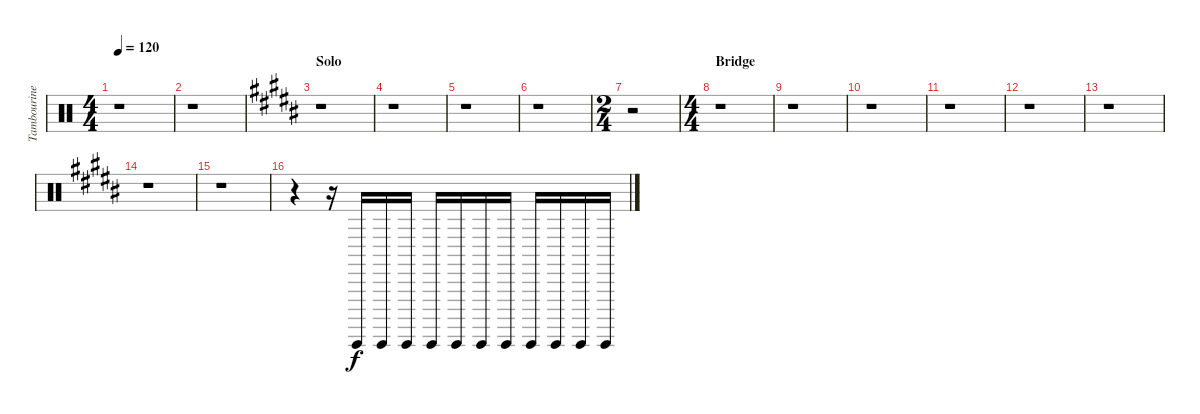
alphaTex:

\track ("Tambourine" "Tambourine") {instrument percussion}
\staff {score}
\articulation defaults
\ts (4 4)
\tempo 120
\clef neutral
\ks c
r.1{dy f} |
r.1 |
\section ("" "Solo")
\ks b
r.1 |
r.1 |
r.1 |
r.1 |
\ts (2 4)
r.2 |
\ts (4 4)
\section ("" "Bridge")
r.1 |
r.1 |
r.1 |
r.1 |
r.1 |
r.1 |
r.1 |
r.1 |
r.4 r.16 "Guiro (hit)".16 "Guiro (hit)".16 "Guiro (hit)".16 "Guiro (hit)".16 "Guiro (hit)".16 "Guiro (hit)".16 "Guiro (hit)".16 "Guiro (hit)".16 "Guiro (hit)".16 "Guiro (hit)".16 "Guiro (hit)".16
